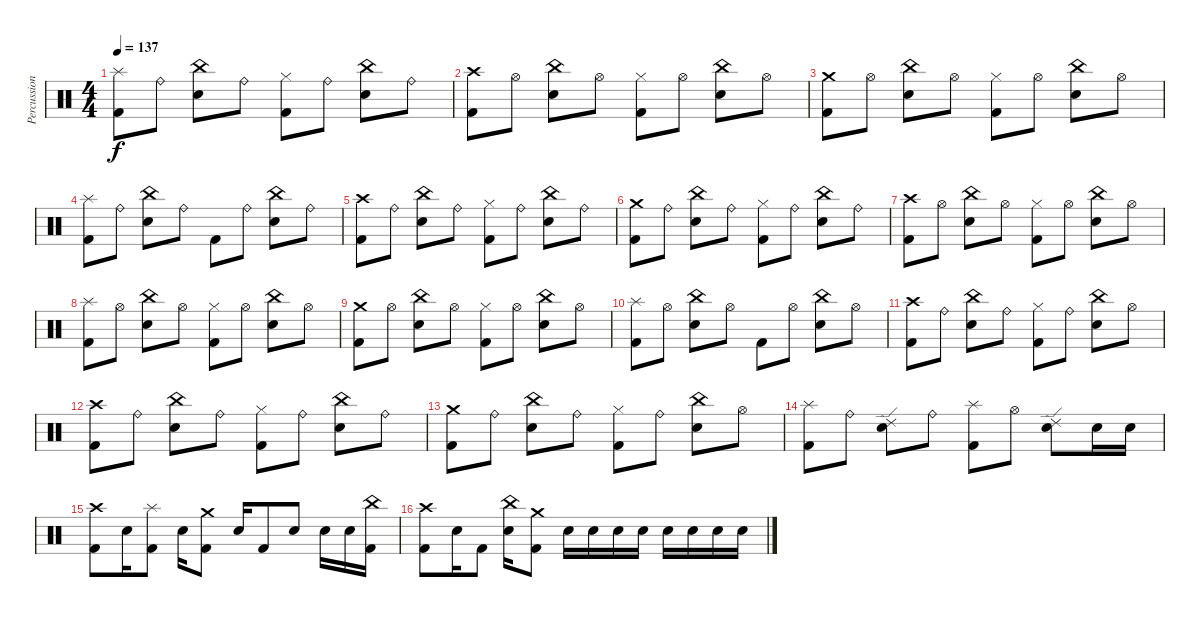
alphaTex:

\track ("Percussion" "Percussion") {instrument percussion}
\staff {score}
\articulation defaults
\ts (4 4)
\tempo 137
\clef neutral
\ks c
("Splash (hit)" "Kick (hit) 2").8{dy f} "Ride (bell)".8 ("China (hit)" "Electric Snare (hit)").8 "Ride (bell)".8 ("Hi-Hat (closed)" "Kick (hit) 2").8 "Ride (bell)".8 ("China (hit)" "Electric Snare (hit)").8 "Ride (bell)".8 |
("Crash high (hit)" "Kick (hit) 2").8 "Hi-Hat (open)".8 ("China (hit)" "Electric Snare (hit)").8 "Hi-Hat (open)".8 ("Hi-Hat (closed)" "Kick (hit) 2").8 "Hi-Hat (open)".8 ("China (hit)" "Electric Snare (hit)").8 "Hi-Hat (open)".8 |
("Crash medium (hit)" "Kick (hit) 2").8 "Hi-Hat (open)".8 ("China (hit)" "Electric Snare (hit)").8 "Hi-Hat (open)".8 ("Hi-Hat (closed)" "Kick (hit) 2").8 "Hi-Hat (open)".8 ("China (hit)" "Electric Snare (hit)").8 "Hi-Hat (open)".8 |
("Splash (hit)" "Kick (hit) 2").8 "Ride (bell)".8 ("China (hit)" "Electric Snare (hit)").8 "Ride (bell)".8 "Kick (hit) 2".8 "Ride (bell)".8 ("China (hit)" "Electric Snare (hit)").8 "Ride (bell)".8 |
("Crash high (hit)" "Kick (hit) 2").8 "Ride (bell)".8 ("China (hit)" "Electric Snare (hit)").8 "Ride (bell)".8 ("Hi-Hat (closed)" "Kick (hit) 2").8 "Ride (bell)".8 ("China (hit)" "Electric Snare (hit)").8 "Ride (bell)".8 |
("Crash medium (hit)" "Kick (hit) 2").8 "Ride (bell)".8 ("China (hit)" "Electric Snare (hit)").8 "Ride (bell)".8 ("Hi-Hat (closed)" "Kick (hit) 2").8 "Ride (bell)".8 ("China (hit)" "Electric Snare (hit)").8 "Ride (bell)".8 |
("Crash high (hit)" "Kick (hit) 2").8 "Hi-Hat (open)".8 ("China (hit)" "Electric Snare (hit)").8 "Hi-Hat (open)".8 ("Hi-Hat (closed)" "Kick (hit) 2").8 "Hi-Hat (open)".8 ("China (hit)" "Electric Snare (hit)").8 "Hi-Hat (open)".8 |
("Splash (hit)" "Kick (hit) 2").8 "Hi-Hat (open)".8 ("China (hit)" "Electric Snare (hit)").8 "Hi-Hat (open)".8 ("Hi-Hat (closed)" "Kick (hit) 2").8 "Hi-Hat (open)".8 ("China (hit)" "Electric Snare (hit)").8 "Hi-Hat (open)".8 |
("Crash medium (hit)" "Kick (hit) 2").8 "Hi-Hat (open)".8 ("China (hit)" "Electric Snare (hit)").8 "Hi-Hat (open)".8 ("Hi-Hat (closed)" "Kick (hit) 2").8 "Hi-Hat (open)".8 ("China (hit)" "Electric Snare (hit)").8 "Hi-Hat (open)".8 |
("Splash (hit)" "Kick (hit) 2").8 "Hi-Hat (open)".8 ("China (hit)" "Electric Snare (hit)").8 "Hi-Hat (open)".8 "Kick (hit) 2".8 "Hi-Hat (open)".8 ("China (hit)" "Electric Snare (hit)").8 "Hi-Hat (open)".8 |
("Crash high (hit)" "Kick (hit) 2").8 "Ride (bell)".8 ("China (hit)" "Electric Snare (hit)").8 "Ride (bell)".8 ("Hi-Hat (closed)" "Kick (hit) 2").8 "Ride (bell)".8 ("China (hit)" "Electric Snare (hit)").8 "Hi-Hat (open)".8 |
("Crash high (hit)" "Kick (hit) 2").8 "Ride (bell)".8 ("China (hit)" "Electric Snare (hit)").8 "Ride (bell)".8 ("Hi-Hat (closed)" "Kick (hit) 2").8 "Ride (bell)".8 ("China (hit)" "Electric Snare (hit)").8 "Ride (bell)".8 |
("Crash medium (hit)" "Kick (hit) 2").8 "Ride (bell)".8 ("China (hit)" "Electric Snare (hit)").8 "Ride (bell)".8 ("Hi-Hat (closed)" "Kick (hit) 2").8 "Ride (bell)".8 ("China (hit)" "Electric Snare (hit)").8 "Hi-Hat (open)".8 |
("Splash (hit)" "Kick (hit) 2").8 "Ride (bell)".8 ("Ride (edge) 2" "Electric Snare (hit)").8 "Ride (bell)".8 ("Splash (hit)" "Kick (hit) 2").8 "Hi-Hat (open)".8 ("Ride (edge) 2" "Electric Snare (hit)").8 "Electric Snare (hit)".16 "Electric Snare (hit)".16 |
("Crash high (hit)" "Kick (hit) 2").8 "Electric Snare (hit)".16 ("Splash (hit)" "Kick (hit) 2").8 "Electric Snare (hit)".16 ("Crash medium (hit)" "Kick (hit) 2").8 "Electric Snare (hit)".16 "Kick (hit) 2".8 "Electric Snare (hit)".8 "Electric Snare (hit)".16 "Electric Snare (hit)".16 ("China (hit)" "Kick (hit) 2").16 |
("Crash high (hit)" "Kick (hit) 2").8 "Electric Snare (hit)".16 "Kick (hit) 2".8 ("China (hit)" "Electric Snare (hit)").16 ("Crash medium (hit)" "Kick (hit) 2").8 "Electric Snare (hit)".16 "Electric Snare (hit)".16 "Electric Snare (hit)".16 "Electric Snare (hit)".16 "Electric Snare (hit)".16 "Electric Snare (hit)".16 "Electric Snare (hit)".16 "Electric Snare (hit)".16
